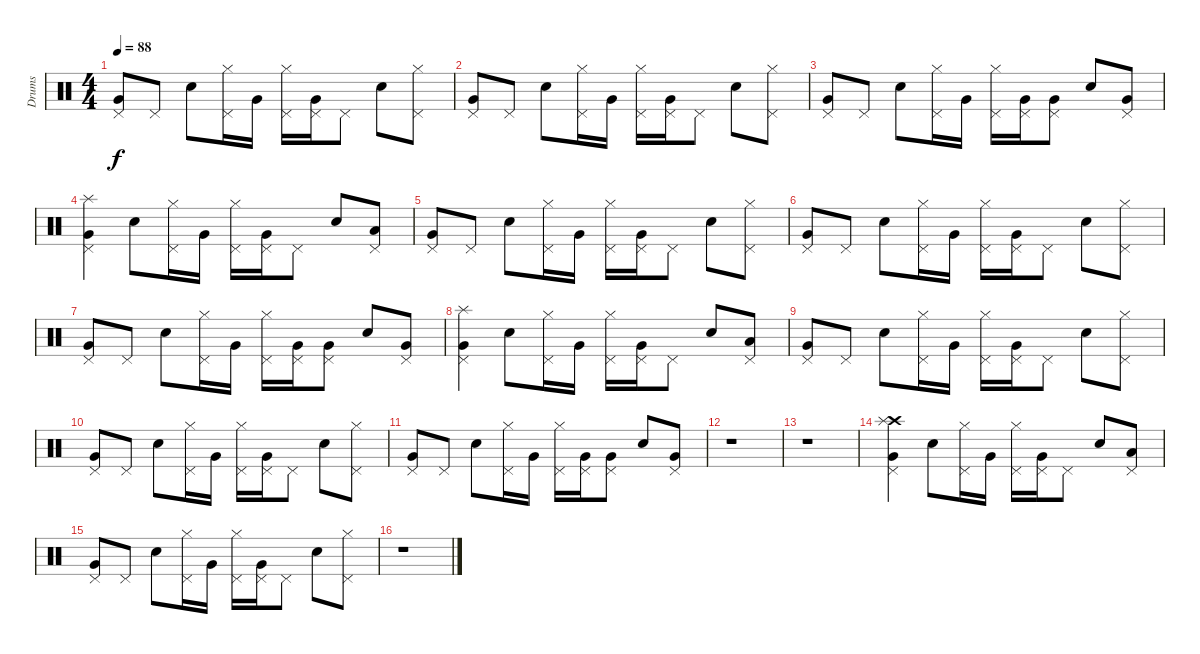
\track ("Drums" "Drums") {instrument percussion}
\staff {score}
\articulation defaults
\ts (4 4)
\tempo 88
\clef neutral
\ks c
("Very Low Tom (hit)" "Pedal Hi-Hat (hit)").8{dy f} "Pedal Hi-Hat (hit)".8 "Electric Snare (hit)".8 ("Hi-Hat (closed)" "Pedal Hi-Hat (hit)").16 "Very Low Tom (hit)".16 ("Hi-Hat (closed)" "Pedal Hi-Hat (hit)").16 ("Very Low Tom (hit)" "Pedal Hi-Hat (hit)").16 "Pedal Hi-Hat (hit)".8 "Electric Snare (hit)".8 ("Hi-Hat (closed)" "Pedal Hi-Hat (hit)").8 |
("Very Low Tom (hit)" "Pedal Hi-Hat (hit)").8 "Pedal Hi-Hat (hit)".8 "Electric Snare (hit)".8 ("Hi-Hat (closed)" "Pedal Hi-Hat (hit)").16 "Very Low Tom (hit)".16 ("Hi-Hat (closed)" "Pedal Hi-Hat (hit)").16 ("Very Low Tom (hit)" "Pedal Hi-Hat (hit)").16 "Pedal Hi-Hat (hit)".8 "Electric Snare (hit)".8 ("Hi-Hat (closed)" "Pedal Hi-Hat (hit)").8 |
("Very Low Tom (hit)" "Pedal Hi-Hat (hit)").8 "Pedal Hi-Hat (hit)".8 "Electric Snare (hit)".8 ("Hi-Hat (closed)" "Pedal Hi-Hat (hit)").16 "Very Low Tom (hit)".16 ("Hi-Hat (closed)" "Pedal Hi-Hat (hit)").16 ("Very Low Tom (hit)" "Pedal Hi-Hat (hit)").16 ("Very Low Tom (hit)" "Pedal Hi-Hat (hit)").8 "Electric Snare (hit)".8 ("Very Low Tom (hit)" "Pedal Hi-Hat (hit)").8 |
("Very Low Tom (hit)" "Pedal Hi-Hat (hit)" "Splash (hit)").4 "Electric Snare (hit)".8 ("Hi-Hat (closed)" "Pedal Hi-Hat (hit)").16 "Very Low Tom (hit)".16 ("Hi-Hat (closed)" "Pedal Hi-Hat (hit)").16 ("Very Low Tom (hit)" "Pedal Hi-Hat (hit)").16 "Pedal Hi-Hat (hit)".8 "Electric Snare (hit)".8 ("Low Floor Tom (hit)" "Pedal Hi-Hat (hit)").8 |
("Very Low Tom (hit)" "Pedal Hi-Hat (hit)").8 "Pedal Hi-Hat (hit)".8 "Electric Snare (hit)".8 ("Hi-Hat (closed)" "Pedal Hi-Hat (hit)").16 "Very Low Tom (hit)".16 ("Hi-Hat (closed)" "Pedal Hi-Hat (hit)").16 ("Very Low Tom (hit)" "Pedal Hi-Hat (hit)").16 "Pedal Hi-Hat (hit)".8 "Electric Snare (hit)".8 ("Hi-Hat (closed)" "Pedal Hi-Hat (hit)").8 |
("Very Low Tom (hit)" "Pedal Hi-Hat (hit)").8 "Pedal Hi-Hat (hit)".8 "Electric Snare (hit)".8 ("Hi-Hat (closed)" "Pedal Hi-Hat (hit)").16 "Very Low Tom (hit)".16 ("Hi-Hat (closed)" "Pedal Hi-Hat (hit)").16 ("Very Low Tom (hit)" "Pedal Hi-Hat (hit)").16 "Pedal Hi-Hat (hit)".8 "Electric Snare (hit)".8 ("Hi-Hat (closed)" "Pedal Hi-Hat (hit)").8 |
("Very Low Tom (hit)" "Pedal Hi-Hat (hit)").8 "Pedal Hi-Hat (hit)".8 "Electric Snare (hit)".8 ("Hi-Hat (closed)" "Pedal Hi-Hat (hit)").16 "Very Low Tom (hit)".16 ("Hi-Hat (closed)" "Pedal Hi-Hat (hit)").16 ("Very Low Tom (hit)" "Pedal Hi-Hat (hit)").16 ("Very Low Tom (hit)" "Pedal Hi-Hat (hit)").8 "Electric Snare (hit)".8 ("Very Low Tom (hit)" "Pedal Hi-Hat (hit)").8 |
("Very Low Tom (hit)" "Pedal Hi-Hat (hit)" "Splash (hit)").4 "Electric Snare (hit)".8 ("Hi-Hat (closed)" "Pedal Hi-Hat (hit)").16 "Very Low Tom (hit)".16 ("Hi-Hat (closed)" "Pedal Hi-Hat (hit)").16 ("Very Low Tom (hit)" "Pedal Hi-Hat (hit)").16 "Pedal Hi-Hat (hit)".8 "Electric Snare (hit)".8 ("Low Floor Tom (hit)" "Pedal Hi-Hat (hit)").8 |
("Very Low Tom (hit)" "Pedal Hi-Hat (hit)").8 "Pedal Hi-Hat (hit)".8 "Electric Snare (hit)".8 ("Hi-Hat (closed)" "Pedal Hi-Hat (hit)").16 "Very Low Tom (hit)".16 ("Hi-Hat (closed)" "Pedal Hi-Hat (hit)").16 ("Very Low Tom (hit)" "Pedal Hi-Hat (hit)").16 "Pedal Hi-Hat (hit)".8 "Electric Snare (hit)".8 ("Hi-Hat (closed)" "Pedal Hi-Hat (hit)").8 |
("Very Low Tom (hit)" "Pedal Hi-Hat (hit)").8 "Pedal Hi-Hat (hit)".8 "Electric Snare (hit)".8 ("Hi-Hat (closed)" "Pedal Hi-Hat (hit)").16 "Very Low Tom (hit)".16 ("Hi-Hat (closed)" "Pedal Hi-Hat (hit)").16 ("Very Low Tom (hit)" "Pedal Hi-Hat (hit)").16 "Pedal Hi-Hat (hit)".8 "Electric Snare (hit)".8 ("Hi-Hat (closed)" "Pedal Hi-Hat (hit)").8 |
("Very Low Tom (hit)" "Pedal Hi-Hat (hit)").8 "Pedal Hi-Hat (hit)".8 "Electric Snare (hit)".8 ("Hi-Hat (closed)" "Pedal Hi-Hat (hit)").16 "Very Low Tom (hit)".16 ("Hi-Hat (closed)" "Pedal Hi-Hat (hit)").16 ("Very Low Tom (hit)" "Pedal Hi-Hat (hit)").16 ("Very Low Tom (hit)" "Pedal Hi-Hat (hit)").8 "Electric Snare (hit)".8 ("Very Low Tom (hit)" "Pedal Hi-Hat (hit)").8 |
r.1 |
r.1 |
("Crash high (hit)" "Very Low Tom (hit)" "Pedal Hi-Hat (hit)" "Splash (hit)").4 "Electric Snare (hit)".8 ("Hi-Hat (closed)" "Pedal Hi-Hat (hit)").16 "Very Low Tom (hit)".16 ("Hi-Hat (closed)" "Pedal Hi-Hat (hit)").16 ("Very Low Tom (hit)" "Pedal Hi-Hat (hit)").16 "Pedal Hi-Hat (hit)".8 "Electric Snare (hit)".8 ("Low Floor Tom (hit)" "Pedal Hi-Hat (hit)").8 |
("Very Low Tom (hit)" "Pedal Hi-Hat (hit)").8 "Pedal Hi-Hat (hit)".8 "Electric Snare (hit)".8 ("Hi-Hat (closed)" "Pedal Hi-Hat (hit)").16 "Very Low Tom (hit)".16 ("Hi-Hat (closed)" "Pedal Hi-Hat (hit)").16 ("Very Low Tom (hit)" "Pedal Hi-Hat (hit)").16 "Pedal Hi-Hat (hit)".8 "Electric Snare (hit)".8 ("Hi-Hat (closed)" "Pedal Hi-Hat (hit)").8 |
r.1
